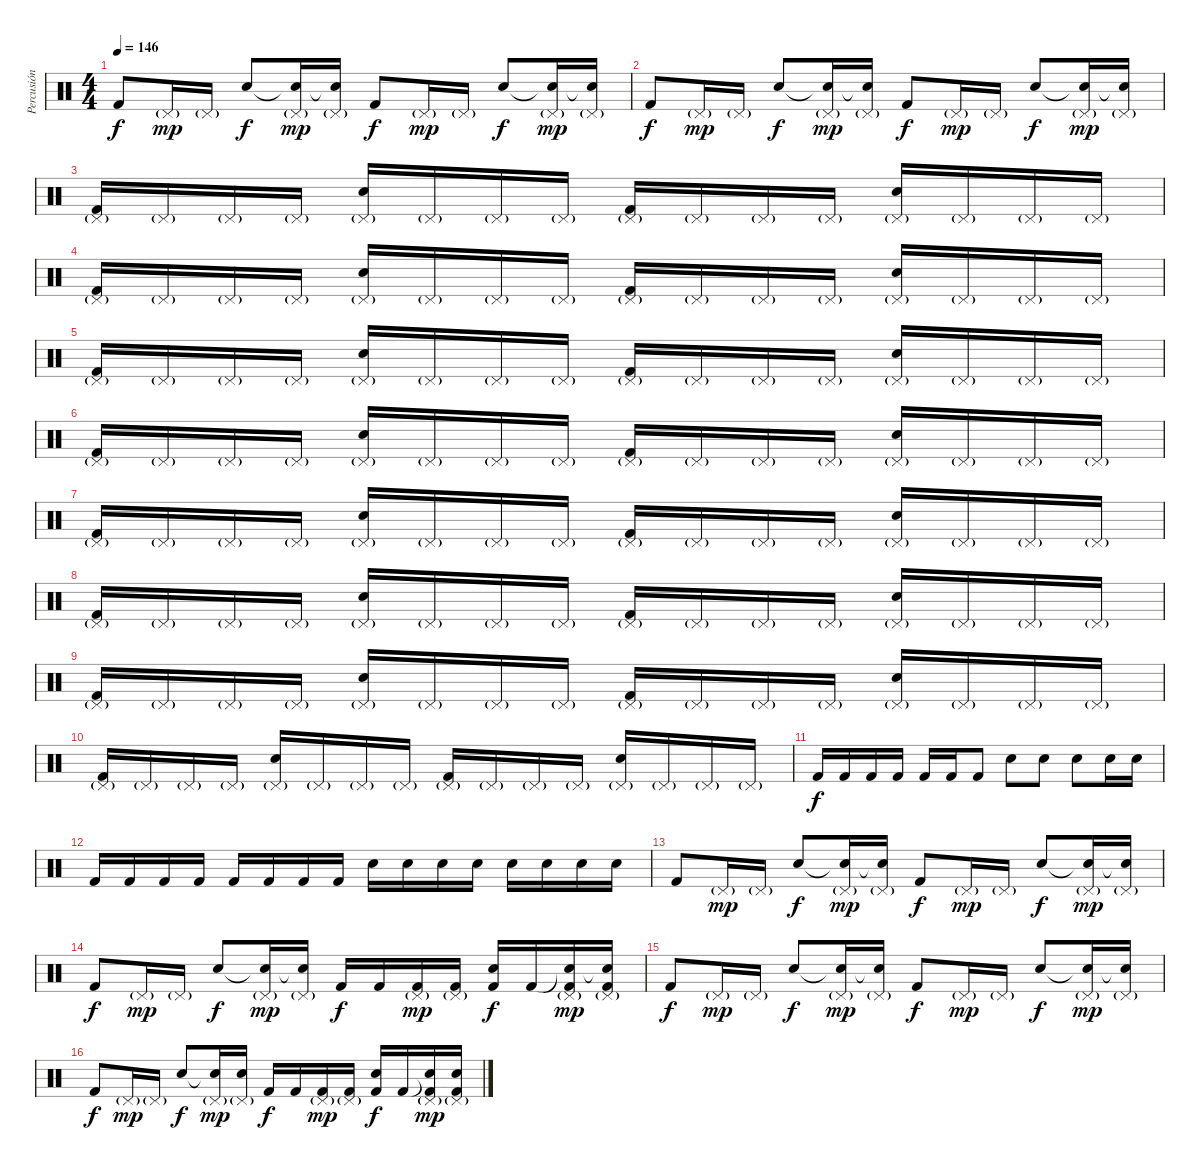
\track ("Percusión" "Percusión") {instrument percussion}
\staff {score}
\articulation defaults
\ts (4 4)
\tempo 146
\clef neutral
\ks c "Kick (hit) 2".8{dy f} "Pedal Hi-Hat (hit)"{g}.16{dy mp} "Pedal Hi-Hat (hit)"{g}.16 "Snare (hit) 2".8{dy f}
("Snare (hit)"{t} "Pedal Hi-Hat (hit)"{g}).16{dy mp} ("Snare (hit)"{t} "Pedal Hi-Hat (hit)"{g}).16 "Kick (hit) 2".8{dy f} "Pedal Hi-Hat (hit)"{g}.16{dy mp} "Pedal Hi-Hat (hit)"{g}.16 "Snare (hit) 2".8{dy f} ("Snare (hit)"{t} "Pedal Hi-Hat (hit)"{g}).16{dy mp} ("Snare (hit)"{t} "Pedal Hi-Hat (hit)"{g}).16 |
"Kick (hit) 2".8{dy f} "Pedal Hi-Hat (hit)"{g}.16{dy mp} "Pedal Hi-Hat (hit)"{g}.16 "Snare (hit) 2".8{dy f} ("Snare (hit)"{t} "Pedal Hi-Hat (hit)"{g}).16{dy mp} ("Snare (hit)"{t} "Pedal Hi-Hat (hit)"{g}).16 "Kick (hit) 2".8{dy f} "Pedal Hi-Hat (hit)"{g}.16{dy mp} "Pedal Hi-Hat (hit)"{g}.16 "Snare (hit) 2".8{dy f} ("Snare (hit)"{t} "Pedal Hi-Hat (hit)"{g}).16{dy mp} ("Snare (hit)"{t} "Pedal Hi-Hat (hit)"{g}).16 |
("Pedal Hi-Hat (hit)"{g} "Kick (hit) 2").16 "Pedal Hi-Hat (hit)"{g}.16 "Pedal Hi-Hat (hit)"{g}.16 "Pedal Hi-Hat (hit)"{g}.16 ("Pedal Hi-Hat (hit)"{g} "Snare (hit) 2").16 "Pedal Hi-Hat (hit)"{g}.16 "Pedal Hi-Hat (hit)"{g}.16 "Pedal Hi-Hat (hit)"{g}.16 ("Pedal Hi-Hat (hit)"{g} "Kick (hit) 2").16 "Pedal Hi-Hat (hit)"{g}.16 "Pedal Hi-Hat (hit)"{g}.16 "Pedal Hi-Hat (hit)"{g}.16 ("Pedal Hi-Hat (hit)"{g} "Snare (hit) 2").16 "Pedal Hi-Hat (hit)"{g}.16 "Pedal Hi-Hat (hit)"{g}.16 "Pedal Hi-Hat (hit)"{g}.16 |
("Pedal Hi-Hat (hit)"{g} "Kick (hit) 2").16 "Pedal Hi-Hat (hit)"{g}.16 "Pedal Hi-Hat (hit)"{g}.16 "Pedal Hi-Hat (hit)"{g}.16 ("Pedal Hi-Hat (hit)"{g} "Snare (hit) 2").16 "Pedal Hi-Hat (hit)"{g}.16 "Pedal Hi-Hat (hit)"{g}.16 "Pedal Hi-Hat (hit)"{g}.16 ("Pedal Hi-Hat (hit)"{g} "Kick (hit) 2").16 "Pedal Hi-Hat (hit)"{g}.16 "Pedal Hi-Hat (hit)"{g}.16 "Pedal Hi-Hat (hit)"{g}.16 ("Pedal Hi-Hat (hit)"{g} "Snare (hit) 2").16 "Pedal Hi-Hat (hit)"{g}.16 "Pedal Hi-Hat (hit)"{g}.16 "Pedal Hi-Hat (hit)"{g}.16 |
("Pedal Hi-Hat (hit)"{g} "Kick (hit) 2").16 "Pedal Hi-Hat (hit)"{g}.16 "Pedal Hi-Hat (hit)"{g}.16 "Pedal Hi-Hat (hit)"{g}.16 ("Pedal Hi-Hat (hit)"{g} "Snare (hit) 2").16 "Pedal Hi-Hat (hit)"{g}.16 "Pedal Hi-Hat (hit)"{g}.16 "Pedal Hi-Hat (hit)"{g}.16 ("Pedal Hi-Hat (hit)"{g} "Kick (hit) 2").16 "Pedal Hi-Hat (hit)"{g}.16 "Pedal Hi-Hat (hit)"{g}.16 "Pedal Hi-Hat (hit)"{g}.16 ("Pedal Hi-Hat (hit)"{g} "Snare (hit) 2").16 "Pedal Hi-Hat (hit)"{g}.16 "Pedal Hi-Hat (hit)"{g}.16 "Pedal Hi-Hat (hit)"{g}.16 |
("Pedal Hi-Hat (hit)"{g} "Kick (hit) 2").16 "Pedal Hi-Hat (hit)"{g}.16 "Pedal Hi-Hat (hit)"{g}.16 "Pedal Hi-Hat (hit)"{g}.16 ("Pedal Hi-Hat (hit)"{g} "Snare (hit) 2").16 "Pedal Hi-Hat (hit)"{g}.16 "Pedal Hi-Hat (hit)"{g}.16 "Pedal Hi-Hat (hit)"{g}.16 ("Pedal Hi-Hat (hit)"{g} "Kick (hit) 2").16 "Pedal Hi-Hat (hit)"{g}.16 "Pedal Hi-Hat (hit)"{g}.16 "Pedal Hi-Hat (hit)"{g}.16 ("Pedal Hi-Hat (hit)"{g} "Snare (hit) 2").16 "Pedal Hi-Hat (hit)"{g}.16 "Pedal Hi-Hat (hit)"{g}.16 "Pedal Hi-Hat (hit)"{g}.16 |
("Pedal Hi-Hat (hit)"{g} "Kick (hit) 2").16 "Pedal Hi-Hat (hit)"{g}.16 "Pedal Hi-Hat (hit)"{g}.16 "Pedal Hi-Hat (hit)"{g}.16 ("Pedal Hi-Hat (hit)"{g} "Snare (hit) 2").16 "Pedal Hi-Hat (hit)"{g}.16 "Pedal Hi-Hat (hit)"{g}.16 "Pedal Hi-Hat (hit)"{g}.16 ("Pedal Hi-Hat (hit)"{g} "Kick (hit) 2").16 "Pedal Hi-Hat (hit)"{g}.16 "Pedal Hi-Hat (hit)"{g}.16 "Pedal Hi-Hat (hit)"{g}.16 ("Pedal Hi-Hat (hit)"{g} "Snare (hit) 2").16 "Pedal Hi-Hat (hit)"{g}.16 "Pedal Hi-Hat (hit)"{g}.16 "Pedal Hi-Hat (hit)"{g}.16 |
("Pedal Hi-Hat (hit)"{g} "Kick (hit) 2").16 "Pedal Hi-Hat (hit)"{g}.16 "Pedal Hi-Hat (hit)"{g}.16 "Pedal Hi-Hat (hit)"{g}.16 ("Pedal Hi-Hat (hit)"{g} "Snare (hit) 2").16 "Pedal Hi-Hat (hit)"{g}.16 "Pedal Hi-Hat (hit)"{g}.16 "Pedal Hi-Hat (hit)"{g}.16 ("Pedal Hi-Hat (hit)"{g} "Kick (hit) 2").16 "Pedal Hi-Hat (hit)"{g}.16 "Pedal Hi-Hat (hit)"{g}.16 "Pedal Hi-Hat (hit)"{g}.16 ("Pedal Hi-Hat (hit)"{g} "Snare (hit) 2").16 "Pedal Hi-Hat (hit)"{g}.16 "Pedal Hi-Hat (hit)"{g}.16 "Pedal Hi-Hat (hit)"{g}.16 |
("Pedal Hi-Hat (hit)"{g} "Kick (hit) 2").16 "Pedal Hi-Hat (hit)"{g}.16 "Pedal Hi-Hat (hit)"{g}.16 "Pedal Hi-Hat (hit)"{g}.16 ("Pedal Hi-Hat (hit)"{g} "Snare (hit) 2").16 "Pedal Hi-Hat (hit)"{g}.16 "Pedal Hi-Hat (hit)"{g}.16 "Pedal Hi-Hat (hit)"{g}.16 ("Pedal Hi-Hat (hit)"{g} "Kick (hit) 2").16 "Pedal Hi-Hat (hit)"{g}.16 "Pedal Hi-Hat (hit)"{g}.16 "Pedal Hi-Hat (hit)"{g}.16 ("Pedal Hi-Hat (hit)"{g} "Snare (hit) 2").16 "Pedal Hi-Hat (hit)"{g}.16 "Pedal Hi-Hat (hit)"{g}.16 "Pedal Hi-Hat (hit)"{g}.16 |
("Pedal Hi-Hat (hit)"{g} "Kick (hit) 2").16 "Pedal Hi-Hat (hit)"{g}.16 "Pedal Hi-Hat (hit)"{g}.16 "Pedal Hi-Hat (hit)"{g}.16 ("Pedal Hi-Hat (hit)"{g} "Snare (hit) 2").16 "Pedal Hi-Hat (hit)"{g}.16 "Pedal Hi-Hat (hit)"{g}.16 "Pedal Hi-Hat (hit)"{g}.16 ("Pedal Hi-Hat (hit)"{g} "Kick (hit) 2").16 "Pedal Hi-Hat (hit)"{g}.16 "Pedal Hi-Hat (hit)"{g}.16 "Pedal Hi-Hat (hit)"{g}.16 ("Pedal Hi-Hat (hit)"{g} "Snare (hit) 2").16 "Pedal Hi-Hat (hit)"{g}.16 "Pedal Hi-Hat (hit)"{g}.16 "Pedal Hi-Hat (hit)"{g}.16 |
"Kick (hit) 2".16{dy f} "Kick (hit) 2".16 "Kick (hit) 2".16 "Kick (hit) 2".16 "Kick (hit) 2".16 "Kick (hit) 2".16 "Kick (hit) 2".8 "Snare (hit) 2".8 "Snare (hit) 2".8 "Snare (hit) 2".8 "Snare (hit) 2".16 "Snare (hit) 2".16 |
"Kick (hit) 2".16 "Kick (hit) 2".16 "Kick (hit) 2".16 "Kick (hit) 2".16 "Kick (hit) 2".16 "Kick (hit) 2".16 "Kick (hit) 2".16 "Kick (hit) 2".16 "Snare (hit) 2".16 "Snare (hit) 2".16 "Snare (hit) 2".16 "Snare (hit) 2".16 "Snare (hit) 2".16 "Snare (hit) 2".16 "Snare (hit) 2".16 "Snare (hit) 2".16 |
"Kick (hit) 2".8 "Pedal Hi-Hat (hit)"{g}.16{dy mp} "Pedal Hi-Hat (hit)"{g}.16 "Snare (hit) 2".8{dy f} ("Snare (hit)"{t} "Pedal Hi-Hat (hit)"{g}).16{dy mp} ("Snare (hit)"{t} "Pedal Hi-Hat (hit)"{g}).16 "Kick (hit) 2".8{dy f} "Pedal Hi-Hat (hit)"{g}.16{dy mp} "Pedal Hi-Hat (hit)"{g}.16 "Snare (hit) 2".8{dy f} ("Snare (hit)"{t} "Pedal Hi-Hat (hit)"{g}).16{dy mp} ("Snare (hit)"{t} "Pedal Hi-Hat (hit)"{g}).16 |
"Kick (hit) 2".8{dy f} "Pedal Hi-Hat (hit)"{g}.16{dy mp} "Pedal Hi-Hat (hit)"{g}.16 "Snare (hit) 2".8{dy f} ("Snare (hit)"{t} "Pedal Hi-Hat (hit)"{g}).16{dy mp} ("Snare (hit)"{t} "Pedal Hi-Hat (hit)"{g}).16 "Kick (hit) 2".16{dy f} "Kick (hit) 2".16 ("Pedal Hi-Hat (hit)"{g} "Kick (hit) 2").16{dy mp} ("Pedal Hi-Hat (hit)"{g} "Kick (hit) 2").16 ("Snare (hit) 2" "Kick (hit) 2").16{dy f} "Kick (hit) 2".16 ("Snare (hit)"{t} "Pedal Hi-Hat (hit)"{g} "Kick (hit) 2").16{dy mp} ("Snare (hit)"{t} "Pedal Hi-Hat (hit)"{g} "Kick (hit) 2").16 |
"Kick (hit) 2".8{dy f} "Pedal Hi-Hat (hit)"{g}.16{dy mp} "Pedal Hi-Hat (hit)"{g}.16 "Snare (hit) 2".8{dy f} ("Snare (hit)"{t} "Pedal Hi-Hat (hit)"{g}).16{dy mp} ("Snare (hit)"{t} "Pedal Hi-Hat (hit)"{g}).16 "Kick (hit) 2".8{dy f} "Pedal Hi-Hat (hit)"{g}.16{dy mp} "Pedal Hi-Hat (hit)"{g}.16 "Snare (hit) 2".8{dy f} ("Snare (hit)"{t} "Pedal Hi-Hat (hit)"{g}).16{dy mp} ("Snare (hit)"{t} "Pedal Hi-Hat (hit)"{g}).16 |
"Kick (hit) 2".8{dy f} "Pedal Hi-Hat (hit)"{g}.16{dy mp} "Pedal Hi-Hat (hit)"{g}.16 "Snare (hit) 2".8{dy f} ("Snare (hit)"{t} "Pedal Hi-Hat (hit)"{g}).16{dy mp} ("Snare (hit)"{t} "Pedal Hi-Hat (hit)"{g}).16 "Kick (hit) 2".16{dy f} "Kick (hit) 2".16 ("Pedal Hi-Hat (hit)"{g} "Kick (hit) 2").16{dy mp} ("Pedal Hi-Hat (hit)"{g} "Kick (hit) 2").16 ("Snare (hit) 2" "Kick (hit) 2").16{dy f} "Kick (hit) 2".16 ("Snare (hit)"{t} "Pedal Hi-Hat (hit)"{g} "Kick (hit) 2").16{dy mp} ("Snare (hit)"{t} "Pedal Hi-Hat (hit)"{g} "Kick (hit) 2").16
